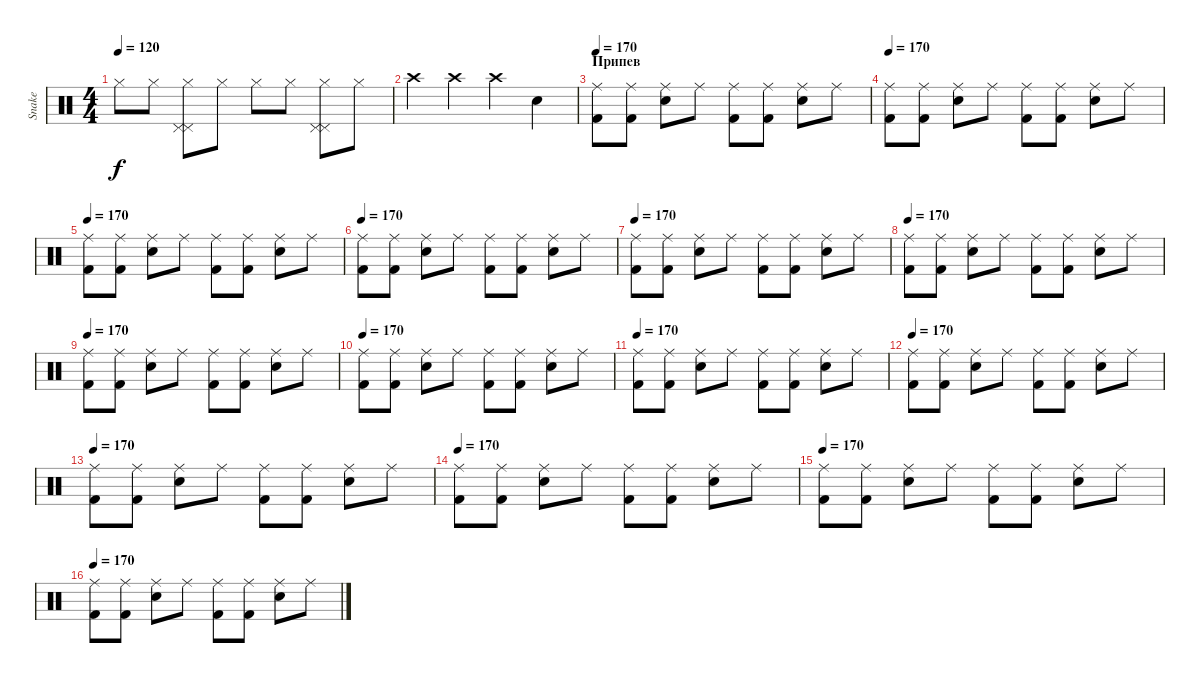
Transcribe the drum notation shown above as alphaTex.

\track ("Snake" "Snake") {instrument percussion}
\staff {score}
\articulation defaults
\ts (4 4)
\tempo 120
\clef neutral
\ks c "Hi-Hat (closed)".8{dy f} "Hi-Hat (closed)".8
("Hi-Hat (closed)" "Pedal Hi-Hat (hit)" "Pedal Hi-Hat (hit)").8 "Hi-Hat (closed)".8 "Hi-Hat (closed)".8 "Hi-Hat (closed)".8 ("Hi-Hat (closed)" "Pedal Hi-Hat (hit)" "Pedal Hi-Hat (hit)").8 "Hi-Hat (closed)".8 |
"Crash high (hit)".4 "Crash high (hit)".4 "Crash high (hit)".4 "Snare (hit) 2".4 |
\section ("" "Припев")
\tempo 170
("Ride (middle)" "Kick (hit) 2").8 ("Ride (middle)" "Kick (hit) 2").8 ("Ride (middle)" "Snare (hit) 2").8 "Ride (middle)".8 ("Ride (middle)" "Kick (hit) 2").8 ("Ride (middle)" "Kick (hit) 2").8 ("Ride (middle)" "Snare (hit) 2").8 "Ride (middle)".8 |
\tempo 170
("Ride (middle)" "Kick (hit) 2").8 ("Ride (middle)" "Kick (hit) 2").8 ("Ride (middle)" "Snare (hit) 2").8 "Ride (middle)".8 ("Ride (middle)" "Kick (hit) 2").8 ("Ride (middle)" "Kick (hit) 2").8 ("Ride (middle)" "Snare (hit) 2").8 "Ride (middle)".8 |
\tempo 170
("Ride (middle)" "Kick (hit) 2").8 ("Ride (middle)" "Kick (hit) 2").8 ("Ride (middle)" "Snare (hit) 2").8 "Ride (middle)".8 ("Ride (middle)" "Kick (hit) 2").8 ("Ride (middle)" "Kick (hit) 2").8 ("Ride (middle)" "Snare (hit) 2").8 "Ride (middle)".8 |
\tempo 170
("Ride (middle)" "Kick (hit) 2").8 ("Ride (middle)" "Kick (hit) 2").8 ("Ride (middle)" "Snare (hit) 2").8 "Ride (middle)".8 ("Ride (middle)" "Kick (hit) 2").8 ("Ride (middle)" "Kick (hit) 2").8 ("Ride (middle)" "Snare (hit) 2").8 "Ride (middle)".8 |
\tempo 170
("Ride (middle)" "Kick (hit) 2").8 ("Ride (middle)" "Kick (hit) 2").8 ("Ride (middle)" "Snare (hit) 2").8 "Ride (middle)".8 ("Ride (middle)" "Kick (hit) 2").8 ("Ride (middle)" "Kick (hit) 2").8 ("Ride (middle)" "Snare (hit) 2").8 "Ride (middle)".8 |
\tempo 170
("Ride (middle)" "Kick (hit) 2").8 ("Ride (middle)" "Kick (hit) 2").8 ("Ride (middle)" "Snare (hit) 2").8 "Ride (middle)".8 ("Ride (middle)" "Kick (hit) 2").8 ("Ride (middle)" "Kick (hit) 2").8 ("Ride (middle)" "Snare (hit) 2").8 "Ride (middle)".8 |
\tempo 170
("Ride (middle)" "Kick (hit) 2").8 ("Ride (middle)" "Kick (hit) 2").8 ("Ride (middle)" "Snare (hit) 2").8 "Ride (middle)".8 ("Ride (middle)" "Kick (hit) 2").8 ("Ride (middle)" "Kick (hit) 2").8 ("Ride (middle)" "Snare (hit) 2").8 "Ride (middle)".8 |
\tempo 170
("Ride (middle)" "Kick (hit) 2").8 ("Ride (middle)" "Kick (hit) 2").8 ("Ride (middle)" "Snare (hit) 2").8 "Ride (middle)".8 ("Ride (middle)" "Kick (hit) 2").8 ("Ride (middle)" "Kick (hit) 2").8 ("Ride (middle)" "Snare (hit) 2").8 "Ride (middle)".8 |
\tempo 170
("Ride (middle)" "Kick (hit) 2").8 ("Ride (middle)" "Kick (hit) 2").8 ("Ride (middle)" "Snare (hit) 2").8 "Ride (middle)".8 ("Ride (middle)" "Kick (hit) 2").8 ("Ride (middle)" "Kick (hit) 2").8 ("Ride (middle)" "Snare (hit) 2").8 "Ride (middle)".8 |
\tempo 170
("Ride (middle)" "Kick (hit) 2").8 ("Ride (middle)" "Kick (hit) 2").8 ("Ride (middle)" "Snare (hit) 2").8 "Ride (middle)".8 ("Ride (middle)" "Kick (hit) 2").8 ("Ride (middle)" "Kick (hit) 2").8 ("Ride (middle)" "Snare (hit) 2").8 "Ride (middle)".8 |
\tempo 170
("Ride (middle)" "Kick (hit) 2").8 ("Ride (middle)" "Kick (hit) 2").8 ("Ride (middle)" "Snare (hit) 2").8 "Ride (middle)".8 ("Ride (middle)" "Kick (hit) 2").8 ("Ride (middle)" "Kick (hit) 2").8 ("Ride (middle)" "Snare (hit) 2").8 "Ride (middle)".8 |
\tempo 170
("Ride (middle)" "Kick (hit) 2").8 ("Ride (middle)" "Kick (hit) 2").8 ("Ride (middle)" "Snare (hit) 2").8 "Ride (middle)".8 ("Ride (middle)" "Kick (hit) 2").8 ("Ride (middle)" "Kick (hit) 2").8 ("Ride (middle)" "Snare (hit) 2").8 "Ride (middle)".8 |
\tempo 170
("Ride (middle)" "Kick (hit) 2").8 ("Ride (middle)" "Kick (hit) 2").8 ("Ride (middle)" "Snare (hit) 2").8 "Ride (middle)".8 ("Ride (middle)" "Kick (hit) 2").8 ("Ride (middle)" "Kick (hit) 2").8 ("Ride (middle)" "Snare (hit) 2").8 "Ride (middle)".8 |
\tempo 170
("Ride (middle)" "Kick (hit) 2").8 ("Ride (middle)" "Kick (hit) 2").8 ("Ride (middle)" "Snare (hit) 2").8 "Ride (middle)".8 ("Ride (middle)" "Kick (hit) 2").8 ("Ride (middle)" "Kick (hit) 2").8 ("Ride (middle)" "Snare (hit) 2").8 "Ride (middle)".8
